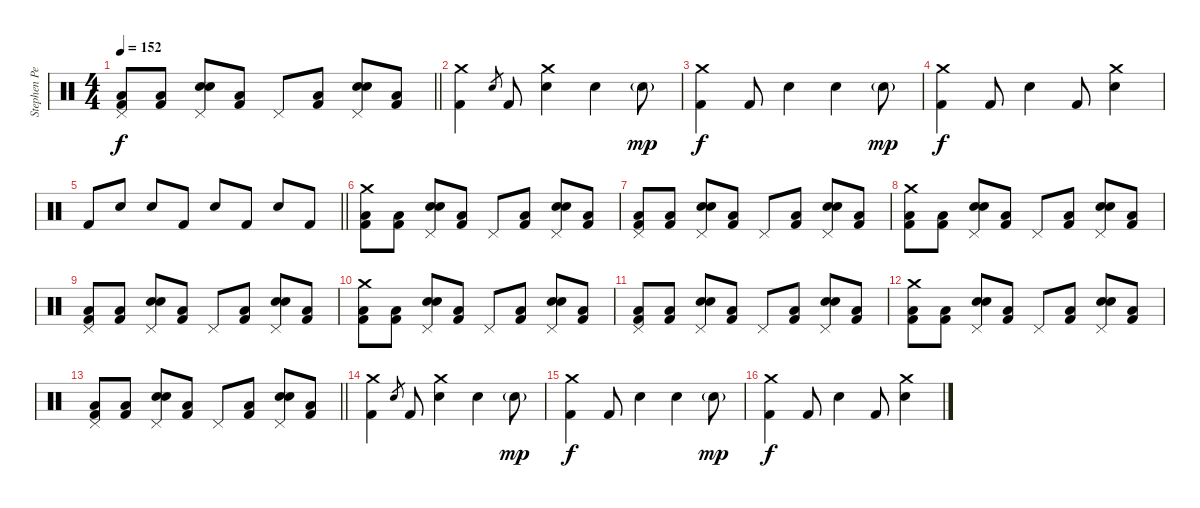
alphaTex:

\track ("Stephen Perkins (Drums)" "Stephen Pe") {instrument percussion}
\staff {score}
\articulation defaults
\ts (4 4)
\tempo 152
\clef neutral
\barLineRight lightlight
\ks c
("Pedal Hi-Hat (hit)" "Low Floor Tom (hit)" "Kick (hit) 2").8{dy f} ("Low Floor Tom (hit)" "Kick (hit) 2").8 ("Pedal Hi-Hat (hit)" "Electric Snare (hit)" "Snare (hit) 2").8 ("Low Floor Tom (hit)" "Kick (hit) 2").8 "Pedal Hi-Hat (hit)".8 ("Low Floor Tom (hit)" "Kick (hit) 2").8 ("Pedal Hi-Hat (hit)" "Electric Snare (hit)" "Snare (hit) 2").8 ("Low Tom (hit)" "Kick (hit) 2").8 |
("Crash medium (hit)" "Kick (hit) 2").4 "Electric Snare (hit)".8{gr} "Kick (hit) 2".8 ("Crash medium (hit)" "Electric Snare (hit)").4 "Electric Snare (hit)".4 "Electric Snare (hit)"{g}.8{dy mp} |
("Crash medium (hit)" "Kick (hit) 2").4{dy f} "Kick (hit) 2".8 "Electric Snare (hit)".4 "Electric Snare (hit)".4 "Electric Snare (hit)"{g}.8{dy mp} |
("Crash medium (hit)" "Kick (hit) 2").4{dy f} "Kick (hit) 2".8 "Electric Snare (hit)".4 "Kick (hit) 2".8 ("Crash medium (hit)" "Electric Snare (hit)").4 |
\barLineRight lightlight "Kick (hit) 2".8 "Electric Snare (hit)".8 "Electric Snare (hit)".8 "Kick (hit) 2".8 "Electric Snare (hit)".8 "Kick (hit) 2".8 "Electric Snare (hit)".8 "Kick (hit) 2".8
|
("Crash medium (hit)" "Low Floor Tom (hit)" "Kick (hit) 2").8 ("Low Floor Tom (hit)" "Kick (hit) 2").8 ("Pedal Hi-Hat (hit)" "Electric Snare (hit)" "Snare (hit) 2").8 ("Low Floor Tom (hit)" "Kick (hit) 2").8 "Pedal Hi-Hat (hit)".8 ("Low Floor Tom (hit)" "Kick (hit) 2").8 ("Pedal Hi-Hat (hit)" "Electric Snare (hit)" "Snare (hit) 2").8 ("Low Tom (hit)" "Kick (hit) 2").8 |
("Pedal Hi-Hat (hit)" "Low Floor Tom (hit)" "Kick (hit) 2").8 ("Low Floor Tom (hit)" "Kick (hit) 2").8 ("Pedal Hi-Hat (hit)" "Electric Snare (hit)" "Snare (hit) 2").8 ("Low Floor Tom (hit)" "Kick (hit) 2").8 "Pedal Hi-Hat (hit)".8 ("Low Floor Tom (hit)" "Kick (hit) 2").8 ("Pedal Hi-Hat (hit)" "Electric Snare (hit)" "Snare (hit) 2").8 ("Low Tom (hit)" "Kick (hit) 2").8 |
("Crash medium (hit)" "Low Floor Tom (hit)" "Kick (hit) 2").8 ("Low Floor Tom (hit)" "Kick (hit) 2").8 ("Pedal Hi-Hat (hit)" "Electric Snare (hit)" "Snare (hit) 2").8 ("Low Floor Tom (hit)" "Kick (hit) 2").8 "Pedal Hi-Hat (hit)".8 ("Low Floor Tom (hit)" "Kick (hit) 2").8 ("Pedal Hi-Hat (hit)" "Electric Snare (hit)" "Snare (hit) 2").8 ("Low Tom (hit)" "Kick (hit) 2").8 |
("Pedal Hi-Hat (hit)" "Low Floor Tom (hit)" "Kick (hit) 2").8 ("Low Floor Tom (hit)" "Kick (hit) 2").8 ("Pedal Hi-Hat (hit)" "Electric Snare (hit)" "Snare (hit) 2").8 ("Low Floor Tom (hit)" "Kick (hit) 2").8 "Pedal Hi-Hat (hit)".8 ("Low Floor Tom (hit)" "Kick (hit) 2").8 ("Pedal Hi-Hat (hit)" "Electric Snare (hit)" "Snare (hit) 2").8 ("Low Tom (hit)" "Kick (hit) 2").8 |
("Crash medium (hit)" "Low Floor Tom (hit)" "Kick (hit) 2").8 ("Low Floor Tom (hit)" "Kick (hit) 2").8 ("Pedal Hi-Hat (hit)" "Electric Snare (hit)" "Snare (hit) 2").8 ("Low Floor Tom (hit)" "Kick (hit) 2").8 "Pedal Hi-Hat (hit)".8 ("Low Floor Tom (hit)" "Kick (hit) 2").8 ("Pedal Hi-Hat (hit)" "Electric Snare (hit)" "Snare (hit) 2").8 ("Low Tom (hit)" "Kick (hit) 2").8 |
("Pedal Hi-Hat (hit)" "Low Floor Tom (hit)" "Kick (hit) 2").8 ("Low Floor Tom (hit)" "Kick (hit) 2").8 ("Pedal Hi-Hat (hit)" "Electric Snare (hit)" "Snare (hit) 2").8 ("Low Floor Tom (hit)" "Kick (hit) 2").8 "Pedal Hi-Hat (hit)".8 ("Low Floor Tom (hit)" "Kick (hit) 2").8 ("Pedal Hi-Hat (hit)" "Electric Snare (hit)" "Snare (hit) 2").8 ("Low Tom (hit)" "Kick (hit) 2").8 |
("Crash medium (hit)" "Low Floor Tom (hit)" "Kick (hit) 2").8 ("Low Floor Tom (hit)" "Kick (hit) 2").8 ("Pedal Hi-Hat (hit)" "Electric Snare (hit)" "Snare (hit) 2").8 ("Low Floor Tom (hit)" "Kick (hit) 2").8 "Pedal Hi-Hat (hit)".8 ("Low Floor Tom (hit)" "Kick (hit) 2").8 ("Pedal Hi-Hat (hit)" "Electric Snare (hit)" "Snare (hit) 2").8 ("Low Tom (hit)" "Kick (hit) 2").8 |
\barLineRight lightlight
("Pedal Hi-Hat (hit)" "Low Floor Tom (hit)" "Kick (hit) 2").8 ("Low Floor Tom (hit)" "Kick (hit) 2").8 ("Pedal Hi-Hat (hit)" "Electric Snare (hit)" "Snare (hit) 2").8 ("Low Floor Tom (hit)" "Kick (hit) 2").8 "Pedal Hi-Hat (hit)".8 ("Low Floor Tom (hit)" "Kick (hit) 2").8 ("Pedal Hi-Hat (hit)" "Electric Snare (hit)" "Snare (hit) 2").8 ("Low Tom (hit)" "Kick (hit) 2").8 |
("Crash medium (hit)" "Kick (hit) 2").4 "Electric Snare (hit)".8{gr} "Kick (hit) 2".8 ("Crash medium (hit)" "Electric Snare (hit)").4 "Electric Snare (hit)".4 "Electric Snare (hit)"{g}.8{dy mp} |
("Crash medium (hit)" "Kick (hit) 2").4{dy f} "Kick (hit) 2".8 "Electric Snare (hit)".4 "Electric Snare (hit)".4 "Electric Snare (hit)"{g}.8{dy mp} |
("Crash medium (hit)" "Kick (hit) 2").4{dy f} "Kick (hit) 2".8 "Electric Snare (hit)".4 "Kick (hit) 2".8 ("Crash medium (hit)" "Electric Snare (hit)").4
